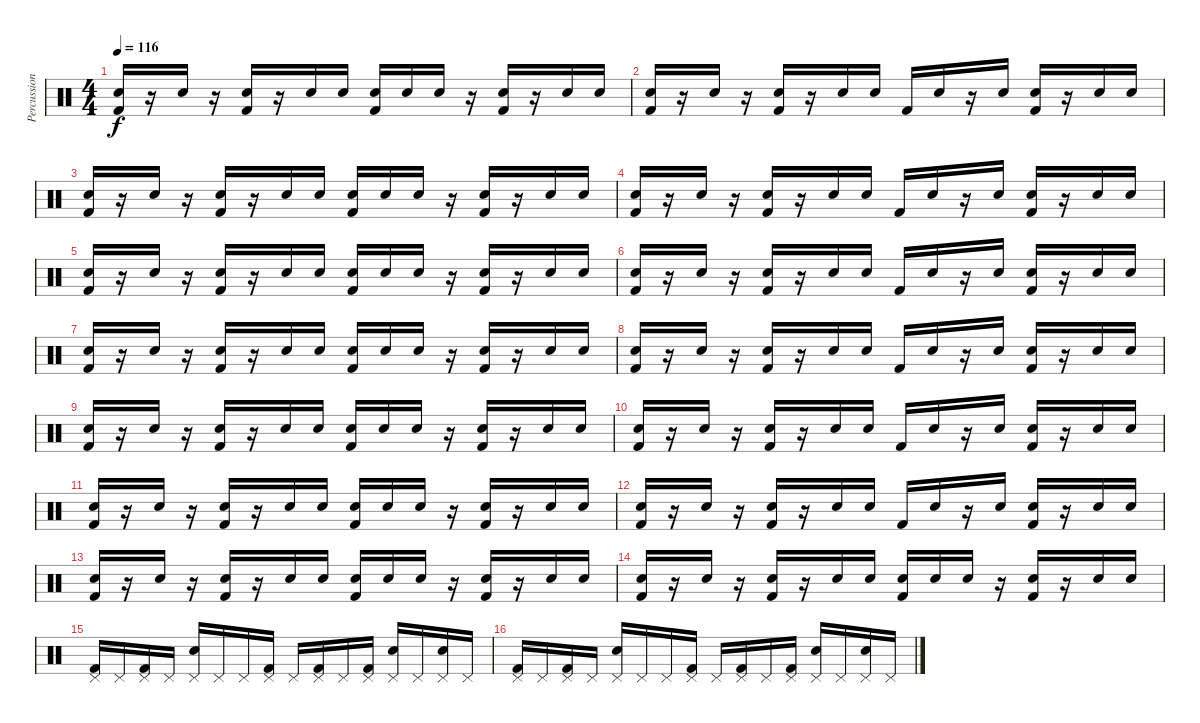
\track ("Percussions" "Percussion") {instrument percussion}
\staff {score}
\articulation defaults
\ts (4 4)
\tempo 116
\clef neutral
\ks c
("Snare (hit) 2" "Kick (hit) 2").16{dy f} r.16 "Snare (hit) 2".16 r.16 ("Snare (hit) 2" "Kick (hit) 2").16 r.16 "Snare (hit) 2".16 "Snare (hit) 2".16 ("Snare (hit) 2" "Kick (hit) 2").16 "Snare (hit) 2".16 "Snare (hit) 2".16 r.16 ("Snare (hit) 2" "Kick (hit) 2").16 r.16 "Snare (hit) 2".16 "Snare (hit) 2".16 |
("Snare (hit) 2" "Kick (hit) 2").16 r.16 "Snare (hit) 2".16 r.16 ("Snare (hit) 2" "Kick (hit) 2").16 r.16 "Snare (hit) 2".16 "Snare (hit) 2".16 "Kick (hit) 2".16 "Snare (hit) 2".16 r.16 "Snare (hit) 2".16 ("Snare (hit) 2" "Kick (hit) 2").16 r.16 "Snare (hit) 2".16 "Snare (hit) 2".16 |
("Snare (hit) 2" "Kick (hit) 2").16 r.16 "Snare (hit) 2".16 r.16 ("Snare (hit) 2" "Kick (hit) 2").16 r.16 "Snare (hit) 2".16 "Snare (hit) 2".16 ("Snare (hit) 2" "Kick (hit) 2").16 "Snare (hit) 2".16 "Snare (hit) 2".16 r.16 ("Snare (hit) 2" "Kick (hit) 2").16 r.16 "Snare (hit) 2".16 "Snare (hit) 2".16 |
("Snare (hit) 2" "Kick (hit) 2").16 r.16 "Snare (hit) 2".16 r.16 ("Snare (hit) 2" "Kick (hit) 2").16 r.16 "Snare (hit) 2".16 "Snare (hit) 2".16 "Kick (hit) 2".16 "Snare (hit) 2".16 r.16 "Snare (hit) 2".16 ("Snare (hit) 2" "Kick (hit) 2").16 r.16 "Snare (hit) 2".16 "Snare (hit) 2".16 |
("Snare (hit) 2" "Kick (hit) 2").16 r.16 "Snare (hit) 2".16 r.16 ("Snare (hit) 2" "Kick (hit) 2").16 r.16 "Snare (hit) 2".16 "Snare (hit) 2".16 ("Snare (hit) 2" "Kick (hit) 2").16 "Snare (hit) 2".16 "Snare (hit) 2".16 r.16 ("Snare (hit) 2" "Kick (hit) 2").16 r.16 "Snare (hit) 2".16 "Snare (hit) 2".16 |
("Snare (hit) 2" "Kick (hit) 2").16 r.16 "Snare (hit) 2".16 r.16 ("Snare (hit) 2" "Kick (hit) 2").16 r.16 "Snare (hit) 2".16 "Snare (hit) 2".16 "Kick (hit) 2".16 "Snare (hit) 2".16 r.16 "Snare (hit) 2".16 ("Snare (hit) 2" "Kick (hit) 2").16 r.16 "Snare (hit) 2".16 "Snare (hit) 2".16 |
("Snare (hit) 2" "Kick (hit) 2").16 r.16 "Snare (hit) 2".16 r.16 ("Snare (hit) 2" "Kick (hit) 2").16 r.16 "Snare (hit) 2".16 "Snare (hit) 2".16 ("Snare (hit) 2" "Kick (hit) 2").16 "Snare (hit) 2".16 "Snare (hit) 2".16 r.16 ("Snare (hit) 2" "Kick (hit) 2").16 r.16 "Snare (hit) 2".16 "Snare (hit) 2".16 |
("Snare (hit) 2" "Kick (hit) 2").16 r.16 "Snare (hit) 2".16 r.16 ("Snare (hit) 2" "Kick (hit) 2").16 r.16 "Snare (hit) 2".16 "Snare (hit) 2".16 "Kick (hit) 2".16 "Snare (hit) 2".16 r.16 "Snare (hit) 2".16 ("Snare (hit) 2" "Kick (hit) 2").16 r.16 "Snare (hit) 2".16 "Snare (hit) 2".16 |
("Snare (hit) 2" "Kick (hit) 2").16 r.16 "Snare (hit) 2".16 r.16 ("Snare (hit) 2" "Kick (hit) 2").16 r.16 "Snare (hit) 2".16 "Snare (hit) 2".16 ("Snare (hit) 2" "Kick (hit) 2").16 "Snare (hit) 2".16 "Snare (hit) 2".16 r.16 ("Snare (hit) 2" "Kick (hit) 2").16 r.16 "Snare (hit) 2".16 "Snare (hit) 2".16 |
("Snare (hit) 2" "Kick (hit) 2").16 r.16 "Snare (hit) 2".16 r.16 ("Snare (hit) 2" "Kick (hit) 2").16 r.16 "Snare (hit) 2".16 "Snare (hit) 2".16 "Kick (hit) 2".16 "Snare (hit) 2".16 r.16 "Snare (hit) 2".16 ("Snare (hit) 2" "Kick (hit) 2").16 r.16 "Snare (hit) 2".16 "Snare (hit) 2".16 |
("Snare (hit) 2" "Kick (hit) 2").16 r.16 "Snare (hit) 2".16 r.16 ("Snare (hit) 2" "Kick (hit) 2").16 r.16 "Snare (hit) 2".16 "Snare (hit) 2".16 ("Snare (hit) 2" "Kick (hit) 2").16 "Snare (hit) 2".16 "Snare (hit) 2".16 r.16 ("Snare (hit) 2" "Kick (hit) 2").16 r.16 "Snare (hit) 2".16 "Snare (hit) 2".16 |
("Snare (hit) 2" "Kick (hit) 2").16 r.16 "Snare (hit) 2".16 r.16 ("Snare (hit) 2" "Kick (hit) 2").16 r.16 "Snare (hit) 2".16 "Snare (hit) 2".16 "Kick (hit) 2".16 "Snare (hit) 2".16 r.16 "Snare (hit) 2".16 ("Snare (hit) 2" "Kick (hit) 2").16 r.16 "Snare (hit) 2".16 "Snare (hit) 2".16 |
("Snare (hit) 2" "Kick (hit) 2").16 r.16 "Snare (hit) 2".16 r.16 ("Snare (hit) 2" "Kick (hit) 2").16 r.16 "Snare (hit) 2".16 "Snare (hit) 2".16 ("Snare (hit) 2" "Kick (hit) 2").16 "Snare (hit) 2".16 "Snare (hit) 2".16 r.16 ("Snare (hit) 2" "Kick (hit) 2").16 r.16 "Snare (hit) 2".16 "Snare (hit) 2".16 |
("Snare (hit) 2" "Kick (hit) 2").16 r.16 "Snare (hit) 2".16 r.16 ("Snare (hit) 2" "Kick (hit) 2").16 r.16 "Snare (hit) 2".16 "Snare (hit) 2".16 ("Snare (hit) 2" "Kick (hit) 2").16 "Snare (hit) 2".16 "Snare (hit) 2".16 r.16 ("Snare (hit) 2" "Kick (hit) 2").16 r.16 "Snare (hit) 2".16 "Snare (hit) 2".16 |
("Pedal Hi-Hat (hit)" "Kick (hit) 2").16 "Pedal Hi-Hat (hit)".16 ("Pedal Hi-Hat (hit)" "Kick (hit) 2").16 "Pedal Hi-Hat (hit)".16 ("Pedal Hi-Hat (hit)" "Snare (hit) 2").16 "Pedal Hi-Hat (hit)".16 "Pedal Hi-Hat (hit)".16 ("Pedal Hi-Hat (hit)" "Kick (hit) 2").16 "Pedal Hi-Hat (hit)".16 ("Pedal Hi-Hat (hit)" "Kick (hit) 2").16 "Pedal Hi-Hat (hit)".16 ("Pedal Hi-Hat (hit)" "Kick (hit) 2").16 ("Pedal Hi-Hat (hit)" "Snare (hit) 2").16 "Pedal Hi-Hat (hit)".16 ("Pedal Hi-Hat (hit)" "Snare (hit) 2").16 "Pedal Hi-Hat (hit)".16 |
("Pedal Hi-Hat (hit)" "Kick (hit) 2").16 "Pedal Hi-Hat (hit)".16 ("Pedal Hi-Hat (hit)" "Kick (hit) 2").16 "Pedal Hi-Hat (hit)".16 ("Pedal Hi-Hat (hit)" "Snare (hit) 2").16 "Pedal Hi-Hat (hit)".16 "Pedal Hi-Hat (hit)".16 ("Pedal Hi-Hat (hit)" "Kick (hit) 2").16 "Pedal Hi-Hat (hit)".16 ("Pedal Hi-Hat (hit)" "Kick (hit) 2").16 "Pedal Hi-Hat (hit)".16 ("Pedal Hi-Hat (hit)" "Kick (hit) 2").16 ("Pedal Hi-Hat (hit)" "Snare (hit) 2").16 "Pedal Hi-Hat (hit)".16 ("Pedal Hi-Hat (hit)" "Snare (hit) 2").16 "Pedal Hi-Hat (hit)".16
